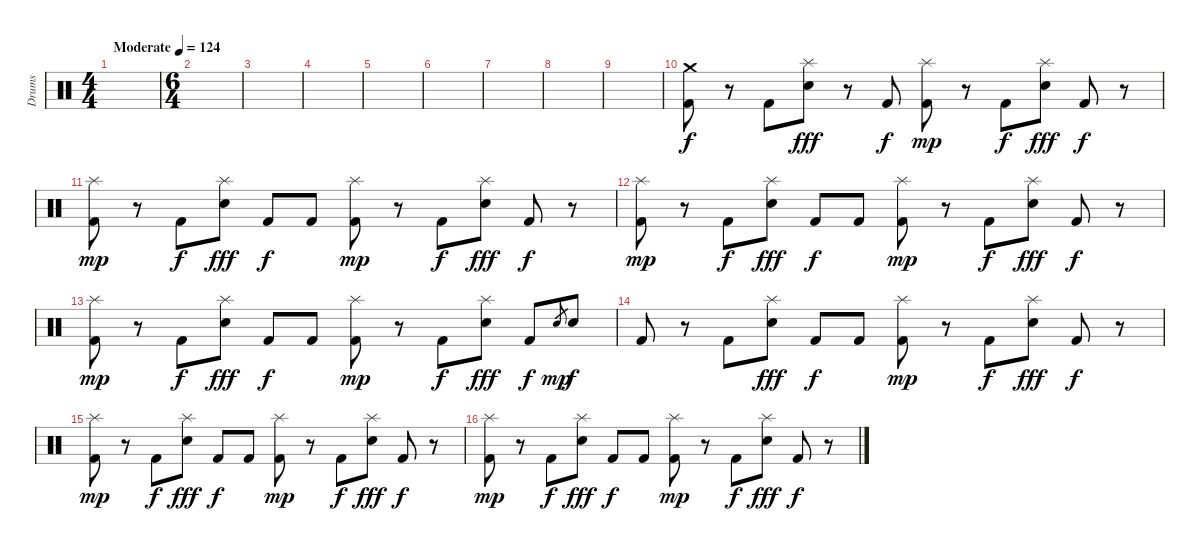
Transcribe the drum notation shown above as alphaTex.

\track ("Drums" "Drums") {instrument percussion}
\staff {score}
\articulation defaults
\ts (4 4)
\tempo (124 "Moderate")
\clef neutral
\ks c
|
\ts (6 4)
|
|
|
|
|
|
|
|
("Crash medium (hit)" "Kick (hit) 2").8 r.8 "Kick (hit) 2".8 ("Splash (hit)" "Electric Snare (hit)").8{dy fff} r.8 "Kick (hit) 2".8{dy f} ("Splash (hit)" "Kick (hit) 2").8{dy mp} r.8 "Kick (hit) 2".8{dy f} ("Splash (hit)" "Electric Snare (hit)").8{dy fff} "Kick (hit) 2".8{dy f} r.8 |
("Splash (hit)" "Kick (hit) 2").8{dy mp} r.8 "Kick (hit) 2".8{dy f} ("Splash (hit)" "Electric Snare (hit)").8{dy fff} "Kick (hit) 2".8{dy f} "Kick (hit) 2".8 ("Splash (hit)" "Kick (hit) 2").8{dy mp} r.8 "Kick (hit) 2".8{dy f} ("Splash (hit)" "Electric Snare (hit)").8{dy fff} "Kick (hit) 2".8{dy f} r.8 |
("Splash (hit)" "Kick (hit) 2").8{dy mp} r.8 "Kick (hit) 2".8{dy f} ("Splash (hit)" "Electric Snare (hit)").8{dy fff} "Kick (hit) 2".8{dy f} "Kick (hit) 2".8 ("Splash (hit)" "Kick (hit) 2").8{dy mp} r.8 "Kick (hit) 2".8{dy f} ("Splash (hit)" "Electric Snare (hit)").8{dy fff} "Kick (hit) 2".8{dy f} r.8 |
("Splash (hit)" "Kick (hit) 2").8{dy mp} r.8 "Kick (hit) 2".8{dy f} ("Splash (hit)" "Electric Snare (hit)").8{dy fff} "Kick (hit) 2".8{dy f} "Kick (hit) 2".8 ("Splash (hit)" "Kick (hit) 2").8{dy mp} r.8 "Kick (hit) 2".8{dy f} ("Splash (hit)" "Electric Snare (hit)").8{dy fff} "Kick (hit) 2".8{dy f} "Electric Snare (hit)".8{gr dy mp} "Electric Snare (hit)".8{dy f} |
"Kick (hit) 2".8 r.8 "Kick (hit) 2".8 ("Splash (hit)" "Electric Snare (hit)").8{dy fff} "Kick (hit) 2".8{dy f} "Kick (hit) 2".8 ("Splash (hit)" "Kick (hit) 2").8{dy mp} r.8 "Kick (hit) 2".8{dy f} ("Splash (hit)" "Electric Snare (hit)").8{dy fff} "Kick (hit) 2".8{dy f} r.8 |
("Splash (hit)" "Kick (hit) 2").8{dy mp} r.8 "Kick (hit) 2".8{dy f} ("Splash (hit)" "Electric Snare (hit)").8{dy fff} "Kick (hit) 2".8{dy f} "Kick (hit) 2".8 ("Splash (hit)" "Kick (hit) 2").8{dy mp} r.8 "Kick (hit) 2".8{dy f} ("Splash (hit)" "Electric Snare (hit)").8{dy fff} "Kick (hit) 2".8{dy f} r.8 |
("Splash (hit)" "Kick (hit) 2").8{dy mp} r.8 "Kick (hit) 2".8{dy f} ("Splash (hit)" "Electric Snare (hit)").8{dy fff} "Kick (hit) 2".8{dy f} "Kick (hit) 2".8 ("Splash (hit)" "Kick (hit) 2").8{dy mp} r.8 "Kick (hit) 2".8{dy f} ("Splash (hit)" "Electric Snare (hit)").8{dy fff} "Kick (hit) 2".8{dy f} r.8
